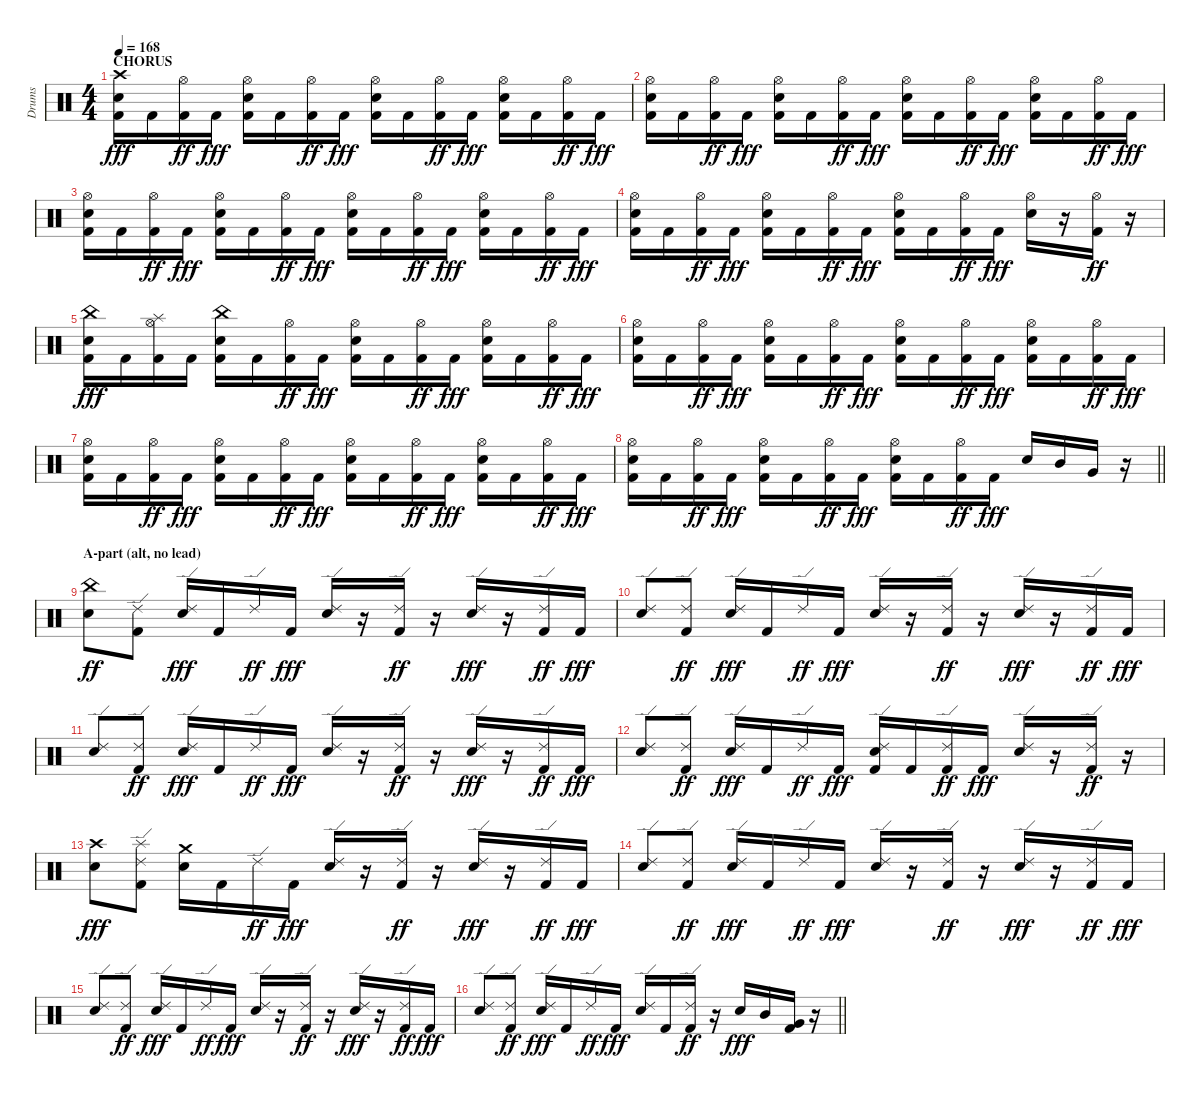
\track ("Drums" "Drums") {instrument percussion}
\staff {score}
\articulation defaults
\ts (4 4)
\section ("" "CHORUS")
\tempo 168
\clef neutral
\ks c
("Kick (hit) 2" "Snare (hit) 2" "Crash high (hit)").16{dy fff} "Kick (hit) 2".16 ("Kick (hit) 2" "Hi-Hat (open)").16{dy ff} "Kick (hit) 2".16{dy fff} ("Kick (hit) 2" "Snare (hit) 2" "Hi-Hat (open)").16 "Kick (hit) 2".16 ("Kick (hit) 2" "Hi-Hat (open)").16{dy ff} "Kick (hit) 2".16{dy fff} ("Kick (hit) 2" "Snare (hit) 2" "Hi-Hat (open)").16 "Kick (hit) 2".16 ("Kick (hit) 2" "Hi-Hat (open)").16{dy ff} "Kick (hit) 2".16{dy fff} ("Kick (hit) 2" "Snare (hit) 2" "Hi-Hat (open)").16 "Kick (hit) 2".16 ("Kick (hit) 2" "Hi-Hat (open)").16{dy ff} "Kick (hit) 2".16{dy fff} |
("Kick (hit) 2" "Snare (hit) 2" "Hi-Hat (open)").16 "Kick (hit) 2".16 ("Kick (hit) 2" "Hi-Hat (open)").16{dy ff} "Kick (hit) 2".16{dy fff} ("Kick (hit) 2" "Snare (hit) 2" "Hi-Hat (open)").16 "Kick (hit) 2".16 ("Kick (hit) 2" "Hi-Hat (open)").16{dy ff} "Kick (hit) 2".16{dy fff} ("Kick (hit) 2" "Snare (hit) 2" "Hi-Hat (open)").16 "Kick (hit) 2".16 ("Kick (hit) 2" "Hi-Hat (open)").16{dy ff} "Kick (hit) 2".16{dy fff} ("Kick (hit) 2" "Snare (hit) 2" "Hi-Hat (open)").16 "Kick (hit) 2".16 ("Kick (hit) 2" "Hi-Hat (open)").16{dy ff} "Kick (hit) 2".16{dy fff} |
("Kick (hit) 2" "Snare (hit) 2" "Hi-Hat (open)").16 "Kick (hit) 2".16 ("Kick (hit) 2" "Hi-Hat (open)").16{dy ff} "Kick (hit) 2".16{dy fff} ("Kick (hit) 2" "Snare (hit) 2" "Hi-Hat (open)").16 "Kick (hit) 2".16 ("Kick (hit) 2" "Hi-Hat (open)").16{dy ff} "Kick (hit) 2".16{dy fff} ("Kick (hit) 2" "Snare (hit) 2" "Hi-Hat (open)").16 "Kick (hit) 2".16 ("Kick (hit) 2" "Hi-Hat (open)").16{dy ff} "Kick (hit) 2".16{dy fff} ("Kick (hit) 2" "Snare (hit) 2" "Hi-Hat (open)").16 "Kick (hit) 2".16 ("Kick (hit) 2" "Hi-Hat (open)").16{dy ff} "Kick (hit) 2".16{dy fff} |
("Kick (hit) 2" "Snare (hit) 2" "Hi-Hat (open)").16 "Kick (hit) 2".16 ("Kick (hit) 2" "Hi-Hat (open)").16{dy ff} "Kick (hit) 2".16{dy fff} ("Kick (hit) 2" "Snare (hit) 2" "Hi-Hat (open)").16 "Kick (hit) 2".16 ("Kick (hit) 2" "Hi-Hat (open)").16{dy ff} "Kick (hit) 2".16{dy fff} ("Kick (hit) 2" "Snare (hit) 2" "Hi-Hat (open)").16 "Kick (hit) 2".16 ("Kick (hit) 2" "Hi-Hat (open)").16{dy ff} "Kick (hit) 2".16{dy fff} ("Snare (hit) 2" "Hi-Hat (open)").16 r.16 ("Kick (hit) 2" "Hi-Hat (open)").16{dy ff} r.16 |
("Kick (hit) 2" "Snare (hit) 2" "China (hit)").16{dy fff} "Kick (hit) 2".16 ("Kick (hit) 2" "Hi-Hat (open)" "Splash (hit)").16 "Kick (hit) 2".16 ("Kick (hit) 2" "Snare (hit) 2" "China (hit)").16 "Kick (hit) 2".16 ("Kick (hit) 2" "Hi-Hat (open)").16{dy ff} "Kick (hit) 2".16{dy fff} ("Kick (hit) 2" "Snare (hit) 2" "Hi-Hat (open)").16 "Kick (hit) 2".16 ("Kick (hit) 2" "Hi-Hat (open)").16{dy ff} "Kick (hit) 2".16{dy fff} ("Kick (hit) 2" "Snare (hit) 2" "Hi-Hat (open)").16 "Kick (hit) 2".16 ("Kick (hit) 2" "Hi-Hat (open)").16{dy ff} "Kick (hit) 2".16{dy fff} |
("Kick (hit) 2" "Snare (hit) 2" "Hi-Hat (open)").16 "Kick (hit) 2".16 ("Kick (hit) 2" "Hi-Hat (open)").16{dy ff} "Kick (hit) 2".16{dy fff} ("Kick (hit) 2" "Snare (hit) 2" "Hi-Hat (open)").16 "Kick (hit) 2".16 ("Kick (hit) 2" "Hi-Hat (open)").16{dy ff} "Kick (hit) 2".16{dy fff} ("Kick (hit) 2" "Snare (hit) 2" "Hi-Hat (open)").16 "Kick (hit) 2".16 ("Kick (hit) 2" "Hi-Hat (open)").16{dy ff} "Kick (hit) 2".16{dy fff} ("Kick (hit) 2" "Snare (hit) 2" "Hi-Hat (open)").16 "Kick (hit) 2".16 ("Kick (hit) 2" "Hi-Hat (open)").16{dy ff} "Kick (hit) 2".16{dy fff} |
("Kick (hit) 2" "Snare (hit) 2" "Hi-Hat (open)").16 "Kick (hit) 2".16 ("Kick (hit) 2" "Hi-Hat (open)").16{dy ff} "Kick (hit) 2".16{dy fff} ("Kick (hit) 2" "Snare (hit) 2" "Hi-Hat (open)").16 "Kick (hit) 2".16 ("Kick (hit) 2" "Hi-Hat (open)").16{dy ff} "Kick (hit) 2".16{dy fff} ("Kick (hit) 2" "Snare (hit) 2" "Hi-Hat (open)").16 "Kick (hit) 2".16 ("Kick (hit) 2" "Hi-Hat (open)").16{dy ff} "Kick (hit) 2".16{dy fff} ("Kick (hit) 2" "Snare (hit) 2" "Hi-Hat (open)").16 "Kick (hit) 2".16 ("Kick (hit) 2" "Hi-Hat (open)").16{dy ff} "Kick (hit) 2".16{dy fff} |
\barLineRight lightlight
("Kick (hit) 2" "Snare (hit) 2" "Hi-Hat (open)").16 "Kick (hit) 2".16 ("Kick (hit) 2" "Hi-Hat (open)").16{dy ff} "Kick (hit) 2".16{dy fff} ("Kick (hit) 2" "Snare (hit) 2" "Hi-Hat (open)").16 "Kick (hit) 2".16 ("Kick (hit) 2" "Hi-Hat (open)").16{dy ff} "Kick (hit) 2".16{dy fff} ("Kick (hit) 2" "Snare (hit) 2" "Hi-Hat (open)").16 "Kick (hit) 2".16 ("Kick (hit) 2" "Hi-Hat (open)").16{dy ff} "Kick (hit) 2".16{dy fff} "Snare (hit) 2".16 "Mid Tom (hit)".16 "Very Low Tom (hit)".16 r.16 |
\section ("" "A-part (alt, no lead)")
("Snare (hit) 2" "China (hit)").8{dy ff} ("Kick (hit) 2" "Ride (edge) 2").8 ("Snare (hit) 2" "Ride (edge) 2").16{dy fff} "Kick (hit) 2".16 "Ride (edge) 2".16{dy ff} "Kick (hit) 2".16{dy fff} ("Snare (hit) 2" "Ride (edge) 2").16 r.16 ("Kick (hit) 2" "Ride (edge) 2").16{dy ff} r.16 ("Snare (hit) 2" "Ride (edge) 2").16{dy fff} r.16 ("Kick (hit) 2" "Ride (edge) 2").16{dy ff} "Kick (hit) 2".16{dy fff} |
("Snare (hit) 2" "Ride (edge) 2").8 ("Kick (hit) 2" "Ride (edge) 2").8{dy ff} ("Snare (hit) 2" "Ride (edge) 2").16{dy fff} "Kick (hit) 2".16 "Ride (edge) 2".16{dy ff} "Kick (hit) 2".16{dy fff} ("Snare (hit) 2" "Ride (edge) 2").16 r.16 ("Kick (hit) 2" "Ride (edge) 2").16{dy ff} r.16 ("Snare (hit) 2" "Ride (edge) 2").16{dy fff} r.16 ("Kick (hit) 2" "Ride (edge) 2").16{dy ff} "Kick (hit) 2".16{dy fff} |
("Snare (hit) 2" "Ride (edge) 2").8 ("Kick (hit) 2" "Ride (edge) 2").8{dy ff} ("Snare (hit) 2" "Ride (edge) 2").16{dy fff} "Kick (hit) 2".16 "Ride (edge) 2".16{dy ff} "Kick (hit) 2".16{dy fff} ("Snare (hit) 2" "Ride (edge) 2").16 r.16 ("Kick (hit) 2" "Ride (edge) 2").16{dy ff} r.16 ("Snare (hit) 2" "Ride (edge) 2").16{dy fff} r.16 ("Kick (hit) 2" "Ride (edge) 2").16{dy ff} "Kick (hit) 2".16{dy fff} |
("Snare (hit) 2" "Ride (edge) 2").8 ("Kick (hit) 2" "Ride (edge) 2").8{dy ff} ("Snare (hit) 2" "Ride (edge) 2").16{dy fff} "Kick (hit) 2".16 "Ride (edge) 2".16{dy ff} "Kick (hit) 2".16{dy fff} ("Kick (hit) 2" "Snare (hit) 2" "Ride (edge) 2").16 "Kick (hit) 2".16 ("Kick (hit) 2" "Ride (edge) 2").16{dy ff} "Kick (hit) 2".16{dy fff} ("Snare (hit) 2" "Ride (edge) 2").16 r.16 ("Kick (hit) 2" "Ride (edge) 2").16{dy ff} r.16 |
("Snare (hit) 2" "Crash high (hit)").8{dy fff} ("Kick (hit) 2" "Ride (edge) 2" "Splash (hit)").8 ("Snare (hit) 2" "Crash medium (hit)").16 "Kick (hit) 2".16 "Ride (edge) 2".16{dy ff} "Kick (hit) 2".16{dy fff} ("Snare (hit) 2" "Ride (edge) 2").16 r.16 ("Kick (hit) 2" "Ride (edge) 2").16{dy ff} r.16 ("Snare (hit) 2" "Ride (edge) 2").16{dy fff} r.16 ("Kick (hit) 2" "Ride (edge) 2").16{dy ff} "Kick (hit) 2".16{dy fff} |
("Snare (hit) 2" "Ride (edge) 2").8 ("Kick (hit) 2" "Ride (edge) 2").8{dy ff} ("Snare (hit) 2" "Ride (edge) 2").16{dy fff} "Kick (hit) 2".16 "Ride (edge) 2".16{dy ff} "Kick (hit) 2".16{dy fff} ("Snare (hit) 2" "Ride (edge) 2").16 r.16 ("Kick (hit) 2" "Ride (edge) 2").16{dy ff} r.16 ("Snare (hit) 2" "Ride (edge) 2").16{dy fff} r.16 ("Kick (hit) 2" "Ride (edge) 2").16{dy ff} "Kick (hit) 2".16{dy fff} |
("Snare (hit) 2" "Ride (edge) 2").8 ("Kick (hit) 2" "Ride (edge) 2").8{dy ff} ("Snare (hit) 2" "Ride (edge) 2").16{dy fff} "Kick (hit) 2".16 "Ride (edge) 2".16{dy ff} "Kick (hit) 2".16{dy fff} ("Snare (hit) 2" "Ride (edge) 2").16 r.16 ("Kick (hit) 2" "Ride (edge) 2").16{dy ff} r.16 ("Snare (hit) 2" "Ride (edge) 2").16{dy fff} r.16 ("Kick (hit) 2" "Ride (edge) 2").16{dy ff} "Kick (hit) 2".16{dy fff} |
\barLineRight lightlight
("Snare (hit) 2" "Ride (edge) 2").8 ("Kick (hit) 2" "Ride (edge) 2").8{dy ff} ("Snare (hit) 2" "Ride (edge) 2").16{dy fff} "Kick (hit) 2".16 "Ride (edge) 2".16{dy ff} "Kick (hit) 2".16{dy fff} ("Snare (hit) 2" "Ride (edge) 2").16 "Kick (hit) 2".16 ("Kick (hit) 2" "Ride (edge) 2").16{dy ff} r.16 "Snare (hit) 2".16{dy fff} "Mid Tom (hit)".16 ("Kick (hit) 2" "Very Low Tom (hit)").16 r.16
